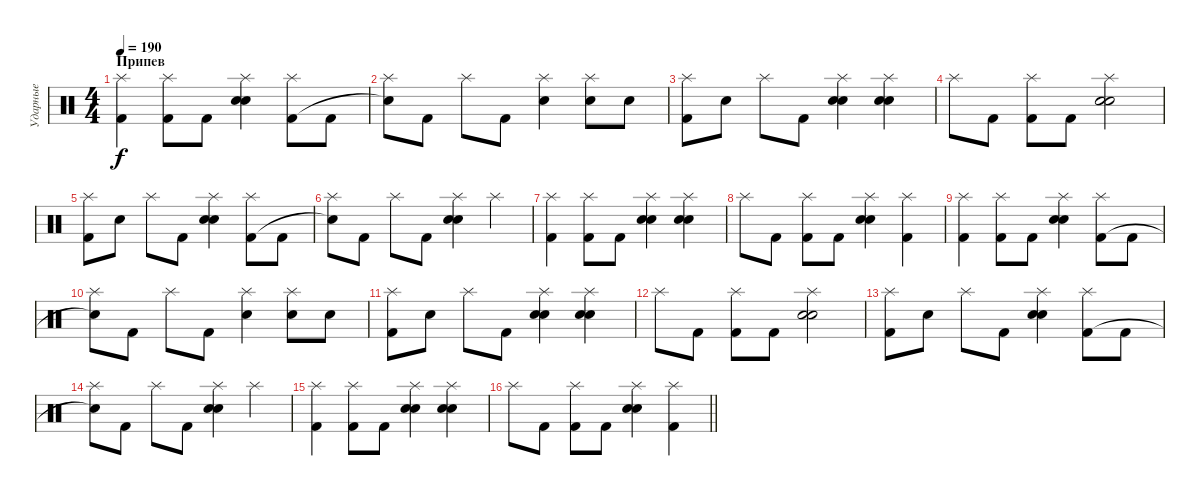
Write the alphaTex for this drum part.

\track ("Ударные" "Ударные") {instrument percussion}
\staff {score}
\articulation defaults
\ts (4 4)
\section ("" "Припев")
\tempo 190
\clef neutral
\ks c
("Splash (hit)" "Kick (hit) 2").4{dy f} ("Splash (hit)" "Kick (hit) 2").8 "Kick (hit) 2".8 ("Splash (hit)" "Electric Snare (hit)" "Snare (hit) 2").4 ("Splash (hit)" "Kick (hit) 2").8 "Kick (hit) 2".8 |
("Splash (hit)" "Snare (hit)"{t}).8 "Kick (hit) 2".8 "Splash (hit)".8 "Kick (hit) 2".8 ("Splash (hit)" "Snare (hit) 2").4 ("Splash (hit)" "Electric Snare (hit)").8 "Electric Snare (hit)".8 |
("Splash (hit)" "Kick (hit) 2").8 "Electric Snare (hit)".8 "Splash (hit)".8 "Kick (hit) 2".8 ("Splash (hit)" "Electric Snare (hit)" "Snare (hit) 2").4 ("Splash (hit)" "Electric Snare (hit)" "Snare (hit) 2").4 |
"Splash (hit)".8 "Kick (hit) 2".8 ("Splash (hit)" "Kick (hit) 2").8 "Kick (hit) 2".8 ("Splash (hit)" "Electric Snare (hit)" "Snare (hit) 2").2 |
("Splash (hit)" "Kick (hit) 2").8 "Electric Snare (hit)".8 "Splash (hit)".8 "Kick (hit) 2".8 ("Splash (hit)" "Electric Snare (hit)" "Snare (hit) 2").4 ("Splash (hit)" "Kick (hit) 2").8 "Kick (hit) 2".8 |
("Splash (hit)" "Snare (hit)"{t}).8 "Kick (hit) 2".8 "Splash (hit)".8 "Kick (hit) 2".8 ("Splash (hit)" "Electric Snare (hit)" "Snare (hit) 2").4 "Splash (hit)".4 |
("Splash (hit)" "Kick (hit) 2").4 ("Splash (hit)" "Kick (hit) 2").8 "Kick (hit) 2".8 ("Splash (hit)" "Electric Snare (hit)" "Snare (hit) 2").4 ("Splash (hit)" "Electric Snare (hit)" "Snare (hit) 2").4 |
"Splash (hit)".8 "Kick (hit) 2".8 ("Splash (hit)" "Kick (hit) 2").8 "Kick (hit) 2".8 ("Splash (hit)" "Electric Snare (hit)" "Snare (hit) 2").4 ("Splash (hit)" "Kick (hit) 2").4 |
("Splash (hit)" "Kick (hit) 2").4 ("Splash (hit)" "Kick (hit) 2").8 "Kick (hit) 2".8 ("Splash (hit)" "Electric Snare (hit)" "Snare (hit) 2").4 ("Splash (hit)" "Kick (hit) 2").8 "Kick (hit) 2".8 |
("Splash (hit)" "Snare (hit)"{t}).8 "Kick (hit) 2".8 "Splash (hit)".8 "Kick (hit) 2".8 ("Splash (hit)" "Snare (hit) 2").4 ("Splash (hit)" "Electric Snare (hit)").8 "Electric Snare (hit)".8 |
("Splash (hit)" "Kick (hit) 2").8 "Electric Snare (hit)".8 "Splash (hit)".8 "Kick (hit) 2".8 ("Splash (hit)" "Electric Snare (hit)" "Snare (hit) 2").4 ("Splash (hit)" "Electric Snare (hit)" "Snare (hit) 2").4 |
"Splash (hit)".8 "Kick (hit) 2".8 ("Splash (hit)" "Kick (hit) 2").8 "Kick (hit) 2".8 ("Splash (hit)" "Electric Snare (hit)" "Snare (hit) 2").2 |
("Splash (hit)" "Kick (hit) 2").8 "Electric Snare (hit)".8 "Splash (hit)".8 "Kick (hit) 2".8 ("Splash (hit)" "Electric Snare (hit)" "Snare (hit) 2").4 ("Splash (hit)" "Kick (hit) 2").8 "Kick (hit) 2".8 |
("Splash (hit)" "Snare (hit)"{t}).8 "Kick (hit) 2".8 "Splash (hit)".8 "Kick (hit) 2".8 ("Splash (hit)" "Electric Snare (hit)" "Snare (hit) 2").4 "Splash (hit)".4 |
("Splash (hit)" "Kick (hit) 2").4 ("Splash (hit)" "Kick (hit) 2").8 "Kick (hit) 2".8 ("Splash (hit)" "Electric Snare (hit)" "Snare (hit) 2").4 ("Splash (hit)" "Electric Snare (hit)" "Snare (hit) 2").4 |
\barLineRight lightlight "Splash (hit)".8 "Kick (hit) 2".8
("Splash (hit)" "Kick (hit) 2").8 "Kick (hit) 2".8 ("Splash (hit)" "Electric Snare (hit)" "Snare (hit) 2").4 ("Splash (hit)" "Kick (hit) 2").4
